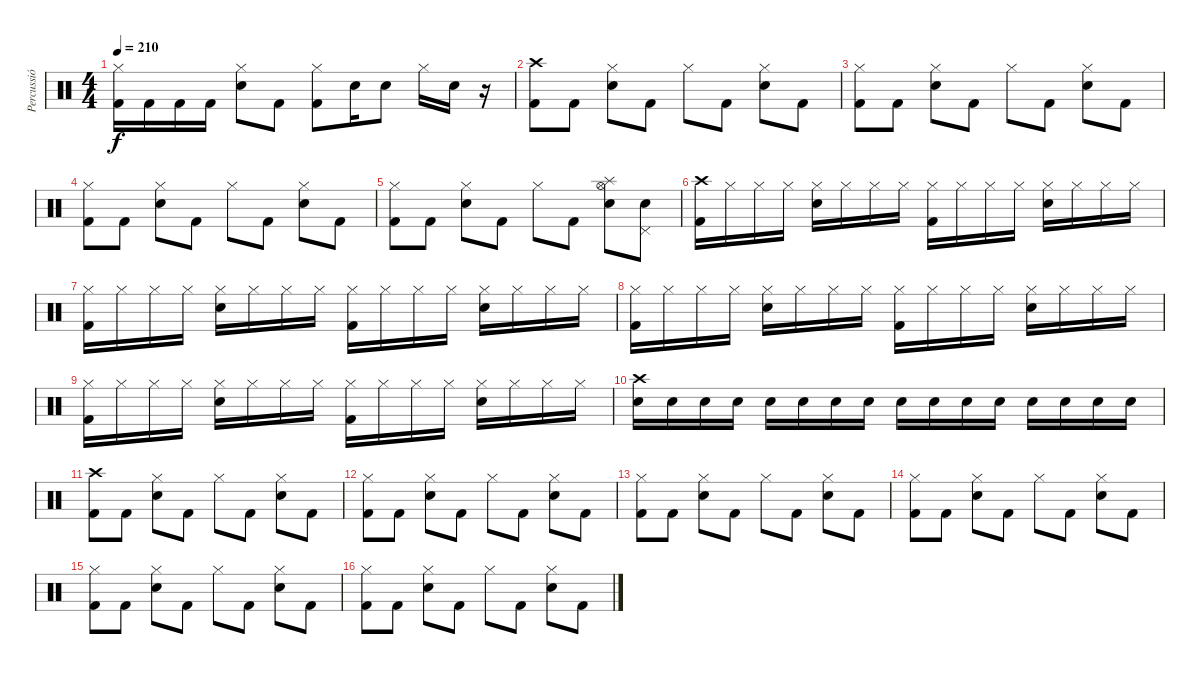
\track ("Percussió" "Percussió") {instrument percussion}
\staff {score}
\articulation defaults
\ts (4 4)
\tempo 210
\clef neutral
\ks c
("Hi-Hat (closed)" "Kick (hit) 2").16{dy f} "Kick (hit) 2".16 "Kick (hit) 2".16 "Kick (hit) 2".16 ("Hi-Hat (closed)" "Snare (hit) 2").8 "Kick (hit) 2".8 ("Hi-Hat (closed)" "Kick (hit) 2").8 "Snare (hit) 2".16 "Snare (hit) 2".8 "Hi-Hat (closed)".16 "Snare (hit) 2".16 r.16 |
("Crash high (hit)" "Kick (hit) 2").8 "Kick (hit) 2".8 ("Hi-Hat (closed)" "Snare (hit) 2").8 "Kick (hit) 2".8 "Hi-Hat (closed)".8 "Kick (hit) 2".8 ("Hi-Hat (closed)" "Snare (hit) 2").8 "Kick (hit) 2".8 |
("Hi-Hat (closed)" "Kick (hit) 2").8 "Kick (hit) 2".8 ("Hi-Hat (closed)" "Snare (hit) 2").8 "Kick (hit) 2".8 "Hi-Hat (closed)".8 "Kick (hit) 2".8 ("Hi-Hat (closed)" "Snare (hit) 2").8 "Kick (hit) 2".8 |
("Hi-Hat (closed)" "Kick (hit) 2").8 "Kick (hit) 2".8 ("Hi-Hat (closed)" "Snare (hit) 2").8 "Kick (hit) 2".8 "Hi-Hat (closed)".8 "Kick (hit) 2".8 ("Hi-Hat (closed)" "Snare (hit) 2").8 "Kick (hit) 2".8 |
("Hi-Hat (closed)" "Kick (hit) 2").8 "Kick (hit) 2".8 ("Hi-Hat (closed)" "Snare (hit) 2").8 "Kick (hit) 2".8 "Hi-Hat (closed)".8 "Kick (hit) 2".8 ("Splash (hit)" "Hi-Hat (open)" "Snare (hit) 2").8 ("Pedal Hi-Hat (hit)" "Snare (hit) 2").8 |
("Crash high (hit)" "Kick (hit) 2").16 "Hi-Hat (closed)".16 "Hi-Hat (closed)".16 "Hi-Hat (closed)".16 ("Hi-Hat (closed)" "Snare (hit) 2").16 "Hi-Hat (closed)".16 "Hi-Hat (closed)".16 "Hi-Hat (closed)".16 ("Hi-Hat (closed)" "Kick (hit) 2").16 "Hi-Hat (closed)".16 "Hi-Hat (closed)".16 "Hi-Hat (closed)".16 ("Hi-Hat (closed)" "Snare (hit) 2").16 "Hi-Hat (closed)".16 "Hi-Hat (closed)".16 "Hi-Hat (closed)".16 |
("Hi-Hat (closed)" "Kick (hit) 2").16 "Hi-Hat (closed)".16 "Hi-Hat (closed)".16 "Hi-Hat (closed)".16 ("Hi-Hat (closed)" "Snare (hit) 2").16 "Hi-Hat (closed)".16 "Hi-Hat (closed)".16 "Hi-Hat (closed)".16 ("Hi-Hat (closed)" "Kick (hit) 2").16 "Hi-Hat (closed)".16 "Hi-Hat (closed)".16 "Hi-Hat (closed)".16 ("Hi-Hat (closed)" "Snare (hit) 2").16 "Hi-Hat (closed)".16 "Hi-Hat (closed)".16 "Hi-Hat (closed)".16 |
("Hi-Hat (closed)" "Kick (hit) 2").16 "Hi-Hat (closed)".16 "Hi-Hat (closed)".16 "Hi-Hat (closed)".16 ("Hi-Hat (closed)" "Snare (hit) 2").16 "Hi-Hat (closed)".16 "Hi-Hat (closed)".16 "Hi-Hat (closed)".16 ("Hi-Hat (closed)" "Kick (hit) 2").16 "Hi-Hat (closed)".16 "Hi-Hat (closed)".16 "Hi-Hat (closed)".16 ("Hi-Hat (closed)" "Snare (hit) 2").16 "Hi-Hat (closed)".16 "Hi-Hat (closed)".16 "Hi-Hat (closed)".16 |
("Hi-Hat (closed)" "Kick (hit) 2").16 "Hi-Hat (closed)".16 "Hi-Hat (closed)".16 "Hi-Hat (closed)".16 ("Hi-Hat (closed)" "Snare (hit) 2").16 "Hi-Hat (closed)".16 "Hi-Hat (closed)".16 "Hi-Hat (closed)".16 ("Hi-Hat (closed)" "Kick (hit) 2").16 "Hi-Hat (closed)".16 "Hi-Hat (closed)".16 "Hi-Hat (closed)".16 ("Hi-Hat (closed)" "Snare (hit) 2").16 "Hi-Hat (closed)".16 "Hi-Hat (closed)".16 "Hi-Hat (closed)".16 |
("Crash high (hit)" "Snare (hit) 2").16 "Snare (hit) 2".16 "Snare (hit) 2".16 "Snare (hit) 2".16 "Snare (hit) 2".16 "Snare (hit) 2".16 "Snare (hit) 2".16 "Snare (hit) 2".16 "Snare (hit) 2".16 "Snare (hit) 2".16 "Snare (hit) 2".16 "Snare (hit) 2".16 "Snare (hit) 2".16 "Snare (hit) 2".16 "Snare (hit) 2".16 "Snare (hit) 2".16 |
("Crash high (hit)" "Kick (hit) 2").8 "Kick (hit) 2".8 ("Hi-Hat (closed)" "Snare (hit) 2").8 "Kick (hit) 2".8 "Hi-Hat (closed)".8 "Kick (hit) 2".8 ("Hi-Hat (closed)" "Snare (hit) 2").8 "Kick (hit) 2".8 |
("Hi-Hat (closed)" "Kick (hit) 2").8 "Kick (hit) 2".8 ("Hi-Hat (closed)" "Snare (hit) 2").8 "Kick (hit) 2".8 "Hi-Hat (closed)".8 "Kick (hit) 2".8 ("Hi-Hat (closed)" "Snare (hit) 2").8 "Kick (hit) 2".8 |
("Hi-Hat (closed)" "Kick (hit) 2").8 "Kick (hit) 2".8 ("Hi-Hat (closed)" "Snare (hit) 2").8 "Kick (hit) 2".8 "Hi-Hat (closed)".8 "Kick (hit) 2".8 ("Hi-Hat (closed)" "Snare (hit) 2").8 "Kick (hit) 2".8 |
("Hi-Hat (closed)" "Kick (hit) 2").8 "Kick (hit) 2".8 ("Hi-Hat (closed)" "Snare (hit) 2").8 "Kick (hit) 2".8 "Hi-Hat (closed)".8 "Kick (hit) 2".8 ("Hi-Hat (closed)" "Snare (hit) 2").8 "Kick (hit) 2".8 |
("Hi-Hat (closed)" "Kick (hit) 2").8 "Kick (hit) 2".8 ("Hi-Hat (closed)" "Snare (hit) 2").8 "Kick (hit) 2".8 "Hi-Hat (closed)".8 "Kick (hit) 2".8 ("Hi-Hat (closed)" "Snare (hit) 2").8 "Kick (hit) 2".8 |
("Hi-Hat (closed)" "Kick (hit) 2").8 "Kick (hit) 2".8 ("Hi-Hat (closed)" "Snare (hit) 2").8 "Kick (hit) 2".8 "Hi-Hat (closed)".8 "Kick (hit) 2".8 ("Hi-Hat (closed)" "Snare (hit) 2").8 "Kick (hit) 2".8
